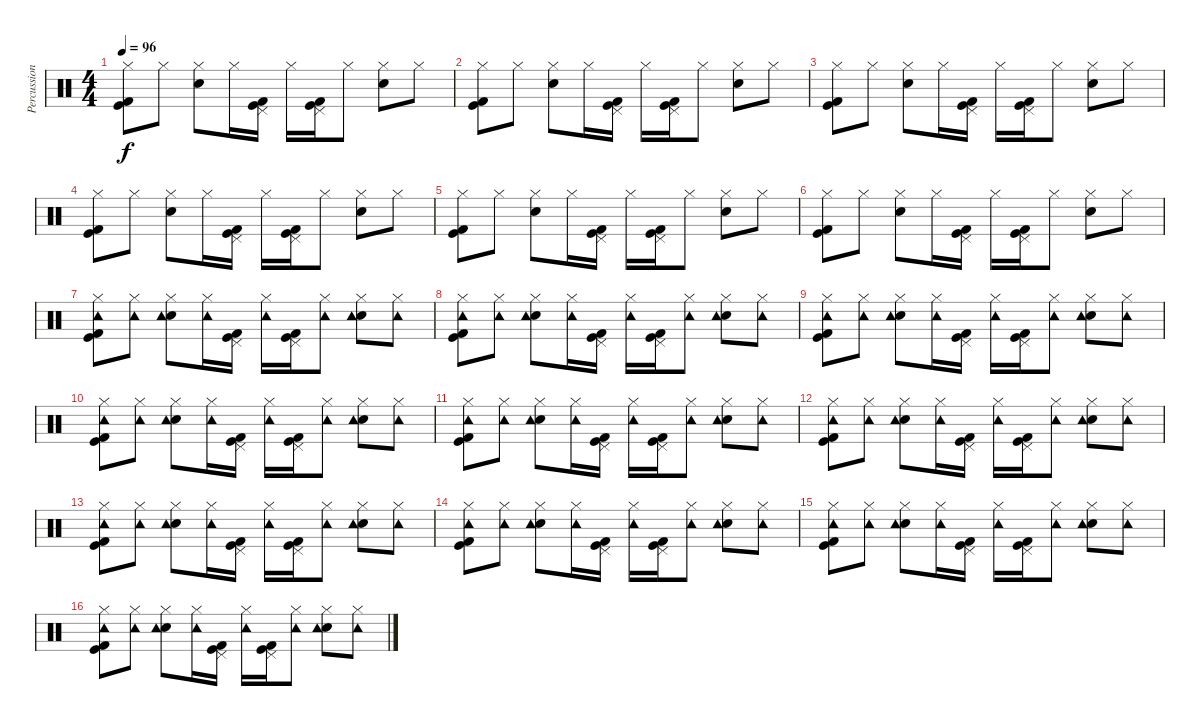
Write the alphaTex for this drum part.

\track ("Percussions" "Percussion") {instrument percussion}
\staff {score}
\articulation defaults
\ts (4 4)
\tempo 96
\clef neutral
\ks c
("Kick (hit) 2" "Hi-Hat (closed)" "Kick (hit)").8{dy f} "Hi-Hat (closed)".8 ("Hi-Hat (closed)" "Snare (hit) 2").8 "Hi-Hat (closed)".16 ("Kick (hit) 2" "Pedal Hi-Hat (hit)" "Kick (hit)").16 "Hi-Hat (closed)".16 ("Kick (hit) 2" "Pedal Hi-Hat (hit)" "Kick (hit)").16 "Hi-Hat (closed)".8 ("Hi-Hat (closed)" "Snare (hit) 2").8 "Hi-Hat (closed)".8 |
("Kick (hit) 2" "Hi-Hat (closed)" "Kick (hit)").8 "Hi-Hat (closed)".8 ("Hi-Hat (closed)" "Snare (hit) 2").8 "Hi-Hat (closed)".16 ("Kick (hit) 2" "Pedal Hi-Hat (hit)" "Kick (hit)").16 "Hi-Hat (closed)".16 ("Kick (hit) 2" "Pedal Hi-Hat (hit)" "Kick (hit)").16 "Hi-Hat (closed)".8 ("Hi-Hat (closed)" "Snare (hit) 2").8 "Hi-Hat (closed)".8 |
("Kick (hit) 2" "Hi-Hat (closed)" "Kick (hit)").8 "Hi-Hat (closed)".8 ("Hi-Hat (closed)" "Snare (hit) 2").8 "Hi-Hat (closed)".16 ("Kick (hit) 2" "Pedal Hi-Hat (hit)" "Kick (hit)").16 "Hi-Hat (closed)".16 ("Kick (hit) 2" "Pedal Hi-Hat (hit)" "Kick (hit)").16 "Hi-Hat (closed)".8 ("Hi-Hat (closed)" "Snare (hit) 2").8 "Hi-Hat (closed)".8 |
("Kick (hit) 2" "Hi-Hat (closed)" "Kick (hit)").8 "Hi-Hat (closed)".8 ("Hi-Hat (closed)" "Snare (hit) 2").8 "Hi-Hat (closed)".16 ("Kick (hit) 2" "Pedal Hi-Hat (hit)" "Kick (hit)").16 "Hi-Hat (closed)".16 ("Kick (hit) 2" "Pedal Hi-Hat (hit)" "Kick (hit)").16 "Hi-Hat (closed)".8 ("Hi-Hat (closed)" "Snare (hit) 2").8 "Hi-Hat (closed)".8 |
("Kick (hit) 2" "Hi-Hat (closed)" "Kick (hit)").8 "Hi-Hat (closed)".8 ("Hi-Hat (closed)" "Snare (hit) 2").8 "Hi-Hat (closed)".16 ("Kick (hit) 2" "Pedal Hi-Hat (hit)" "Kick (hit)").16 "Hi-Hat (closed)".16 ("Kick (hit) 2" "Pedal Hi-Hat (hit)" "Kick (hit)").16 "Hi-Hat (closed)".8 ("Hi-Hat (closed)" "Snare (hit) 2").8 "Hi-Hat (closed)".8 |
("Kick (hit) 2" "Hi-Hat (closed)" "Kick (hit)").8 "Hi-Hat (closed)".8 ("Hi-Hat (closed)" "Snare (hit) 2").8 "Hi-Hat (closed)".16 ("Kick (hit) 2" "Pedal Hi-Hat (hit)" "Kick (hit)").16 "Hi-Hat (closed)".16 ("Kick (hit) 2" "Pedal Hi-Hat (hit)" "Kick (hit)").16 "Hi-Hat (closed)".8 ("Hi-Hat (closed)" "Snare (hit) 2").8 "Hi-Hat (closed)".8 |
("Kick (hit) 2" "Hi-Hat (closed)" "Tambourine (hit)" "Kick (hit)").8 ("Hi-Hat (closed)" "Tambourine (hit)").8 ("Hi-Hat (closed)" "Snare (hit) 2" "Tambourine (hit)").8 ("Hi-Hat (closed)" "Tambourine (hit)").16 ("Kick (hit) 2" "Pedal Hi-Hat (hit)" "Kick (hit)").16 ("Hi-Hat (closed)" "Tambourine (hit)").16 ("Kick (hit) 2" "Pedal Hi-Hat (hit)" "Kick (hit)").16 ("Hi-Hat (closed)" "Tambourine (hit)").8 ("Hi-Hat (closed)" "Snare (hit) 2" "Tambourine (hit)").8 ("Hi-Hat (closed)" "Tambourine (hit)").8 |
("Kick (hit) 2" "Hi-Hat (closed)" "Tambourine (hit)" "Kick (hit)").8 ("Hi-Hat (closed)" "Tambourine (hit)").8 ("Hi-Hat (closed)" "Snare (hit) 2" "Tambourine (hit)").8 ("Hi-Hat (closed)" "Tambourine (hit)").16 ("Kick (hit) 2" "Pedal Hi-Hat (hit)" "Kick (hit)").16 ("Hi-Hat (closed)" "Tambourine (hit)").16 ("Kick (hit) 2" "Pedal Hi-Hat (hit)" "Kick (hit)").16 ("Hi-Hat (closed)" "Tambourine (hit)").8 ("Hi-Hat (closed)" "Snare (hit) 2" "Tambourine (hit)").8 ("Hi-Hat (closed)" "Tambourine (hit)").8 |
("Kick (hit) 2" "Hi-Hat (closed)" "Tambourine (hit)" "Kick (hit)").8 ("Hi-Hat (closed)" "Tambourine (hit)").8 ("Hi-Hat (closed)" "Snare (hit) 2" "Tambourine (hit)").8 ("Hi-Hat (closed)" "Tambourine (hit)").16 ("Kick (hit) 2" "Pedal Hi-Hat (hit)" "Kick (hit)").16 ("Hi-Hat (closed)" "Tambourine (hit)").16 ("Kick (hit) 2" "Pedal Hi-Hat (hit)" "Kick (hit)").16 ("Hi-Hat (closed)" "Tambourine (hit)").8 ("Hi-Hat (closed)" "Snare (hit) 2" "Tambourine (hit)").8 ("Hi-Hat (closed)" "Tambourine (hit)").8 |
("Kick (hit) 2" "Hi-Hat (closed)" "Tambourine (hit)" "Kick (hit)").8 ("Hi-Hat (closed)" "Tambourine (hit)").8 ("Hi-Hat (closed)" "Snare (hit) 2" "Tambourine (hit)").8 ("Hi-Hat (closed)" "Tambourine (hit)").16 ("Kick (hit) 2" "Pedal Hi-Hat (hit)" "Kick (hit)").16 ("Hi-Hat (closed)" "Tambourine (hit)").16 ("Kick (hit) 2" "Pedal Hi-Hat (hit)" "Kick (hit)").16 ("Hi-Hat (closed)" "Tambourine (hit)").8 ("Hi-Hat (closed)" "Snare (hit) 2" "Tambourine (hit)").8 ("Hi-Hat (closed)" "Tambourine (hit)").8 |
("Kick (hit) 2" "Hi-Hat (closed)" "Tambourine (hit)" "Kick (hit)").8 ("Hi-Hat (closed)" "Tambourine (hit)").8 ("Hi-Hat (closed)" "Snare (hit) 2" "Tambourine (hit)").8 ("Hi-Hat (closed)" "Tambourine (hit)").16 ("Kick (hit) 2" "Pedal Hi-Hat (hit)" "Kick (hit)").16 ("Hi-Hat (closed)" "Tambourine (hit)").16 ("Kick (hit) 2" "Pedal Hi-Hat (hit)" "Kick (hit)").16 ("Hi-Hat (closed)" "Tambourine (hit)").8 ("Hi-Hat (closed)" "Snare (hit) 2" "Tambourine (hit)").8 ("Hi-Hat (closed)" "Tambourine (hit)").8 |
("Kick (hit) 2" "Hi-Hat (closed)" "Tambourine (hit)" "Kick (hit)").8 ("Hi-Hat (closed)" "Tambourine (hit)").8 ("Hi-Hat (closed)" "Snare (hit) 2" "Tambourine (hit)").8 ("Hi-Hat (closed)" "Tambourine (hit)").16 ("Kick (hit) 2" "Pedal Hi-Hat (hit)" "Kick (hit)").16 ("Hi-Hat (closed)" "Tambourine (hit)").16 ("Kick (hit) 2" "Pedal Hi-Hat (hit)" "Kick (hit)").16 ("Hi-Hat (closed)" "Tambourine (hit)").8 ("Hi-Hat (closed)" "Snare (hit) 2" "Tambourine (hit)").8 ("Hi-Hat (closed)" "Tambourine (hit)").8 |
("Kick (hit) 2" "Hi-Hat (closed)" "Tambourine (hit)" "Kick (hit)").8 ("Hi-Hat (closed)" "Tambourine (hit)").8 ("Hi-Hat (closed)" "Snare (hit) 2" "Tambourine (hit)").8 ("Hi-Hat (closed)" "Tambourine (hit)").16 ("Kick (hit) 2" "Pedal Hi-Hat (hit)" "Kick (hit)").16 ("Hi-Hat (closed)" "Tambourine (hit)").16 ("Kick (hit) 2" "Pedal Hi-Hat (hit)" "Kick (hit)").16 ("Hi-Hat (closed)" "Tambourine (hit)").8 ("Hi-Hat (closed)" "Snare (hit) 2" "Tambourine (hit)").8 ("Hi-Hat (closed)" "Tambourine (hit)").8 |
("Kick (hit) 2" "Hi-Hat (closed)" "Tambourine (hit)" "Kick (hit)").8 ("Hi-Hat (closed)" "Tambourine (hit)").8 ("Hi-Hat (closed)" "Snare (hit) 2" "Tambourine (hit)").8 ("Hi-Hat (closed)" "Tambourine (hit)").16 ("Kick (hit) 2" "Pedal Hi-Hat (hit)" "Kick (hit)").16 ("Hi-Hat (closed)" "Tambourine (hit)").16 ("Kick (hit) 2" "Pedal Hi-Hat (hit)" "Kick (hit)").16 ("Hi-Hat (closed)" "Tambourine (hit)").8 ("Hi-Hat (closed)" "Snare (hit) 2" "Tambourine (hit)").8 ("Hi-Hat (closed)" "Tambourine (hit)").8 |
("Kick (hit) 2" "Hi-Hat (closed)" "Tambourine (hit)" "Kick (hit)").8 ("Hi-Hat (closed)" "Tambourine (hit)").8 ("Hi-Hat (closed)" "Snare (hit) 2" "Tambourine (hit)").8 ("Hi-Hat (closed)" "Tambourine (hit)").16 ("Kick (hit) 2" "Pedal Hi-Hat (hit)" "Kick (hit)").16 ("Hi-Hat (closed)" "Tambourine (hit)").16 ("Kick (hit) 2" "Pedal Hi-Hat (hit)" "Kick (hit)").16 ("Hi-Hat (closed)" "Tambourine (hit)").8 ("Hi-Hat (closed)" "Snare (hit) 2" "Tambourine (hit)").8 ("Hi-Hat (closed)" "Tambourine (hit)").8 |
("Kick (hit) 2" "Hi-Hat (closed)" "Tambourine (hit)" "Kick (hit)").8 ("Hi-Hat (closed)" "Tambourine (hit)").8 ("Hi-Hat (closed)" "Snare (hit) 2" "Tambourine (hit)").8 ("Hi-Hat (closed)" "Tambourine (hit)").16 ("Kick (hit) 2" "Pedal Hi-Hat (hit)" "Kick (hit)").16 ("Hi-Hat (closed)" "Tambourine (hit)").16 ("Kick (hit) 2" "Pedal Hi-Hat (hit)" "Kick (hit)").16 ("Hi-Hat (closed)" "Tambourine (hit)").8 ("Hi-Hat (closed)" "Snare (hit) 2" "Tambourine (hit)").8 ("Hi-Hat (closed)" "Tambourine (hit)").8
